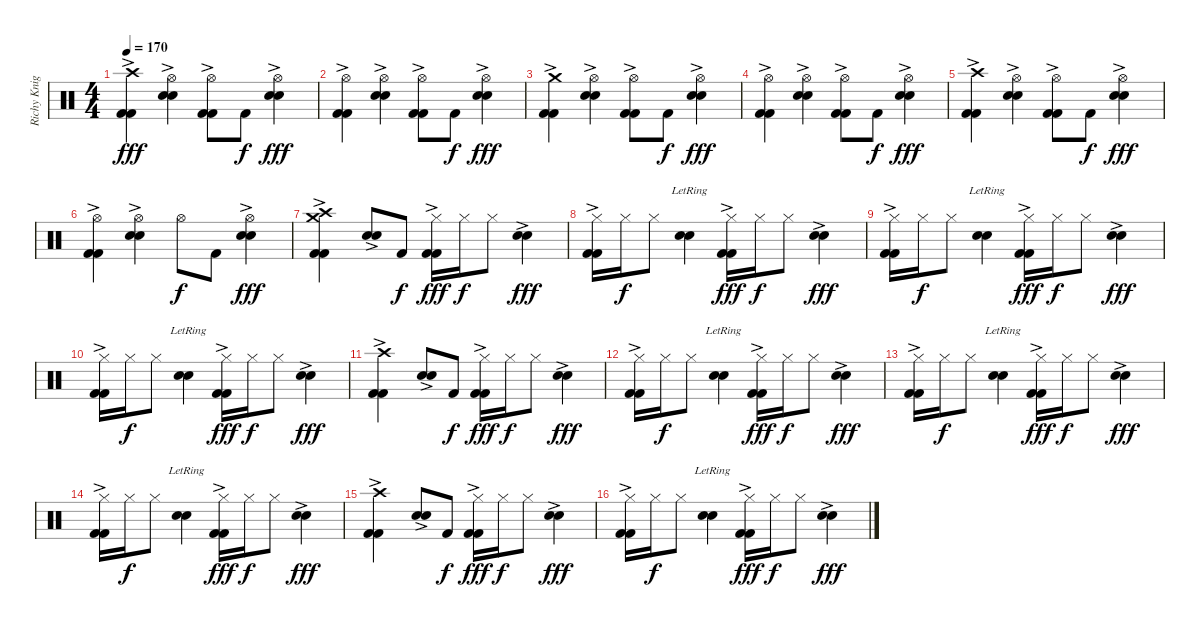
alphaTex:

\track ("Richy Knight (Drums)" "Richy Knig") {instrument percussion}
\staff {score}
\articulation defaults
\ts (4 4)
\tempo 170
\clef neutral
\ks c
("Crash high (hit)"{ac} "Kick (hit) 2"{ac} "Kick (hit) 2"{ac}).4{dy fff} ("Hi-Hat (open)"{ac} "Electric Snare (hit)"{ac} "Electric Snare (hit)"{ac}).4 ("Hi-Hat (open)"{ac} "Kick (hit) 2"{ac} "Kick (hit) 2"{ac}).8 "Kick (hit) 2".8{dy f} ("Hi-Hat (open)"{ac} "Electric Snare (hit)"{ac} "Electric Snare (hit)"{ac}).4{dy fff} |
("Hi-Hat (open)"{ac} "Kick (hit) 2"{ac} "Kick (hit) 2"{ac}).4 ("Hi-Hat (open)"{ac} "Electric Snare (hit)"{ac} "Electric Snare (hit)"{ac}).4 ("Hi-Hat (open)"{ac} "Kick (hit) 2"{ac} "Kick (hit) 2"{ac}).8 "Kick (hit) 2".8{dy f} ("Hi-Hat (open)"{ac} "Electric Snare (hit)"{ac} "Electric Snare (hit)"{ac}).4{dy fff} |
("Crash medium (hit)"{ac} "Kick (hit) 2"{ac} "Kick (hit) 2"{ac}).4 ("Hi-Hat (open)"{ac} "Electric Snare (hit)"{ac} "Electric Snare (hit)"{ac}).4 ("Hi-Hat (open)"{ac} "Kick (hit) 2"{ac} "Kick (hit) 2"{ac}).8 "Kick (hit) 2".8{dy f} ("Hi-Hat (open)"{ac} "Electric Snare (hit)"{ac} "Electric Snare (hit)"{ac}).4{dy fff} |
("Hi-Hat (open)"{ac} "Kick (hit) 2"{ac} "Kick (hit) 2"{ac}).4 ("Hi-Hat (open)"{ac} "Electric Snare (hit)"{ac} "Electric Snare (hit)"{ac}).4 ("Hi-Hat (open)"{ac} "Kick (hit) 2"{ac} "Kick (hit) 2"{ac}).8 "Kick (hit) 2".8{dy f} ("Hi-Hat (open)"{ac} "Electric Snare (hit)"{ac} "Electric Snare (hit)"{ac}).4{dy fff} |
("Crash high (hit)"{ac} "Kick (hit) 2"{ac} "Kick (hit) 2"{ac}).4 ("Hi-Hat (open)"{ac} "Electric Snare (hit)"{ac} "Electric Snare (hit)"{ac}).4 ("Hi-Hat (open)"{ac} "Kick (hit) 2"{ac} "Kick (hit) 2"{ac}).8 "Kick (hit) 2".8{dy f} ("Hi-Hat (open)"{ac} "Electric Snare (hit)"{ac} "Electric Snare (hit)"{ac}).4{dy fff} |
("Hi-Hat (open)"{ac} "Kick (hit) 2"{ac} "Kick (hit) 2"{ac}).4 ("Hi-Hat (open)"{ac} "Electric Snare (hit)"{ac} "Electric Snare (hit)"{ac}).4 "Hi-Hat (open)".8{dy f} "Kick (hit) 2".8 ("Hi-Hat (open)"{ac} "Electric Snare (hit)"{ac} "Electric Snare (hit)"{ac}).4{dy fff} |
("Crash high (hit)"{ac} "Crash medium (hit)"{ac} "Kick (hit) 2"{ac} "Kick (hit) 2"{ac}).4 ("Electric Snare (hit)"{ac} "Electric Snare (hit)"{ac}).8 "Kick (hit) 2".8{dy f} ("Hi-Hat (closed)" "Kick (hit) 2"{ac} "Kick (hit) 2"{ac}).16{dy fff} "Hi-Hat (closed)".16{dy f} "Hi-Hat (closed)".8 ("Electric Snare (hit)"{ac} "Electric Snare (hit)"{ac}).4{dy fff} |
("Hi-Hat (closed)" "Kick (hit) 2"{ac} "Kick (hit) 2"{ac}).16 "Hi-Hat (closed)".16{dy f} "Hi-Hat (closed)".8 ("Electric Snare (hit)"{lr} "Electric Snare (hit)"{lr}).4 ("Hi-Hat (closed)" "Kick (hit) 2"{ac} "Kick (hit) 2"{ac}).16{dy fff} "Hi-Hat (closed)".16{dy f} "Hi-Hat (closed)".8 ("Electric Snare (hit)"{ac} "Electric Snare (hit)"{ac}).4{dy fff} |
("Hi-Hat (closed)" "Kick (hit) 2"{ac} "Kick (hit) 2"{ac}).16 "Hi-Hat (closed)".16{dy f} "Hi-Hat (closed)".8 ("Electric Snare (hit)"{lr} "Electric Snare (hit)"{lr}).4 ("Hi-Hat (closed)" "Kick (hit) 2"{ac} "Kick (hit) 2"{ac}).16{dy fff} "Hi-Hat (closed)".16{dy f} "Hi-Hat (closed)".8 ("Electric Snare (hit)"{ac} "Electric Snare (hit)"{ac}).4{dy fff} |
("Hi-Hat (closed)" "Kick (hit) 2"{ac} "Kick (hit) 2"{ac}).16 "Hi-Hat (closed)".16{dy f} "Hi-Hat (closed)".8 ("Electric Snare (hit)"{lr} "Electric Snare (hit)"{lr}).4 ("Hi-Hat (closed)" "Kick (hit) 2"{ac} "Kick (hit) 2"{ac}).16{dy fff} "Hi-Hat (closed)".16{dy f} "Hi-Hat (closed)".8 ("Electric Snare (hit)"{ac} "Electric Snare (hit)"{ac}).4{dy fff} |
("Crash high (hit)"{ac} "Kick (hit) 2"{ac} "Kick (hit) 2"{ac}).4 ("Electric Snare (hit)"{ac} "Electric Snare (hit)"{ac}).8 "Kick (hit) 2".8{dy f} ("Hi-Hat (closed)" "Kick (hit) 2"{ac} "Kick (hit) 2"{ac}).16{dy fff} "Hi-Hat (closed)".16{dy f} "Hi-Hat (closed)".8 ("Electric Snare (hit)"{ac} "Electric Snare (hit)"{ac}).4{dy fff} |
("Hi-Hat (closed)" "Kick (hit) 2"{ac} "Kick (hit) 2"{ac}).16 "Hi-Hat (closed)".16{dy f} "Hi-Hat (closed)".8 ("Electric Snare (hit)"{lr} "Electric Snare (hit)"{lr}).4 ("Hi-Hat (closed)" "Kick (hit) 2"{ac} "Kick (hit) 2"{ac}).16{dy fff} "Hi-Hat (closed)".16{dy f} "Hi-Hat (closed)".8 ("Electric Snare (hit)"{ac} "Electric Snare (hit)"{ac}).4{dy fff} |
("Hi-Hat (closed)" "Kick (hit) 2"{ac} "Kick (hit) 2"{ac}).16 "Hi-Hat (closed)".16{dy f} "Hi-Hat (closed)".8 ("Electric Snare (hit)"{lr} "Electric Snare (hit)"{lr}).4 ("Hi-Hat (closed)" "Kick (hit) 2"{ac} "Kick (hit) 2"{ac}).16{dy fff} "Hi-Hat (closed)".16{dy f} "Hi-Hat (closed)".8 ("Electric Snare (hit)"{ac} "Electric Snare (hit)"{ac}).4{dy fff} |
("Hi-Hat (closed)" "Kick (hit) 2"{ac} "Kick (hit) 2"{ac}).16 "Hi-Hat (closed)".16{dy f} "Hi-Hat (closed)".8 ("Electric Snare (hit)"{lr} "Electric Snare (hit)"{lr}).4 ("Hi-Hat (closed)" "Kick (hit) 2"{ac} "Kick (hit) 2"{ac}).16{dy fff} "Hi-Hat (closed)".16{dy f} "Hi-Hat (closed)".8 ("Electric Snare (hit)"{ac} "Electric Snare (hit)"{ac}).4{dy fff} |
("Crash high (hit)"{ac} "Kick (hit) 2"{ac} "Kick (hit) 2"{ac}).4 ("Electric Snare (hit)"{ac} "Electric Snare (hit)"{ac}).8 "Kick (hit) 2".8{dy f} ("Hi-Hat (closed)" "Kick (hit) 2"{ac} "Kick (hit) 2"{ac}).16{dy fff} "Hi-Hat (closed)".16{dy f} "Hi-Hat (closed)".8 ("Electric Snare (hit)"{ac} "Electric Snare (hit)"{ac}).4{dy fff} |
("Hi-Hat (closed)" "Kick (hit) 2"{ac} "Kick (hit) 2"{ac}).16 "Hi-Hat (closed)".16{dy f} "Hi-Hat (closed)".8 ("Electric Snare (hit)"{lr} "Electric Snare (hit)"{lr}).4 ("Hi-Hat (closed)" "Kick (hit) 2"{ac} "Kick (hit) 2"{ac}).16{dy fff} "Hi-Hat (closed)".16{dy f} "Hi-Hat (closed)".8 ("Electric Snare (hit)"{ac} "Electric Snare (hit)"{ac}).4{dy fff}
